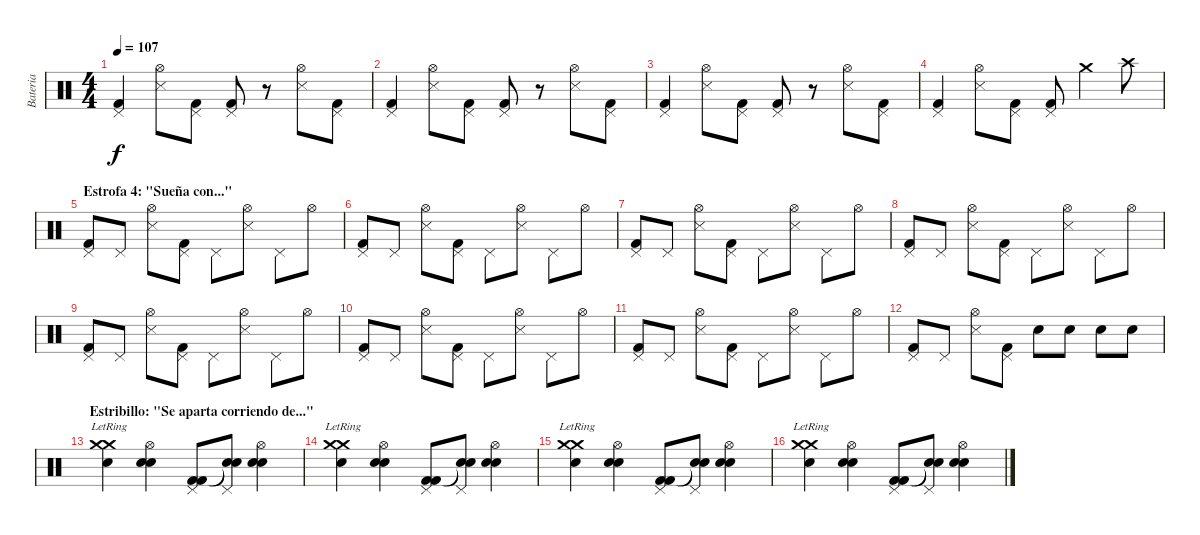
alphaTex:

\track ("Bateria" "Bateria") {instrument percussion}
\staff {score}
\articulation defaults
\ts (4 4)
\tempo 107
\clef neutral
\ks c
("Pedal Hi-Hat (hit)" "Kick (hit) 2").4{dy f} ("Hi-Hat (open)" "Snare (side stick) 3").8 ("Pedal Hi-Hat (hit)" "Kick (hit) 2").8 ("Pedal Hi-Hat (hit)" "Kick (hit) 2").8 r.8 ("Hi-Hat (open)" "Snare (side stick) 3").8 ("Pedal Hi-Hat (hit)" "Kick (hit) 2").8 |
("Pedal Hi-Hat (hit)" "Kick (hit) 2").4 ("Hi-Hat (open)" "Snare (side stick) 3").8 ("Pedal Hi-Hat (hit)" "Kick (hit) 2").8 ("Pedal Hi-Hat (hit)" "Kick (hit) 2").8 r.8 ("Hi-Hat (open)" "Snare (side stick) 3").8 ("Pedal Hi-Hat (hit)" "Kick (hit) 2").8 |
("Pedal Hi-Hat (hit)" "Kick (hit) 2").4 ("Hi-Hat (open)" "Snare (side stick) 3").8 ("Pedal Hi-Hat (hit)" "Kick (hit) 2").8 ("Pedal Hi-Hat (hit)" "Kick (hit) 2").8 r.8 ("Hi-Hat (open)" "Snare (side stick) 3").8 ("Pedal Hi-Hat (hit)" "Kick (hit) 2").8 |
("Pedal Hi-Hat (hit)" "Kick (hit) 2").4 ("Hi-Hat (open)" "Snare (side stick) 3").8 ("Pedal Hi-Hat (hit)" "Kick (hit) 2").8 ("Pedal Hi-Hat (hit)" "Kick (hit) 2").8 "Crash medium (hit)".4 "Crash high (hit)".8 |
\section ("" "Estrofa 4: \"Sueña con...\"")
("Kick (hit) 2" "Pedal Hi-Hat (hit)").8 "Pedal Hi-Hat (hit)".8 ("Hi-Hat (open)" "Snare (side stick) 3").8 ("Kick (hit) 2" "Pedal Hi-Hat (hit)").8 "Pedal Hi-Hat (hit)".8 ("Snare (side stick) 3" "Hi-Hat (open)").8 "Pedal Hi-Hat (hit)".8 "Hi-Hat (open)".8 |
("Kick (hit) 2" "Pedal Hi-Hat (hit)").8 "Pedal Hi-Hat (hit)".8 ("Hi-Hat (open)" "Snare (side stick) 3").8 ("Kick (hit) 2" "Pedal Hi-Hat (hit)").8 "Pedal Hi-Hat (hit)".8 ("Snare (side stick) 3" "Hi-Hat (open)").8 "Pedal Hi-Hat (hit)".8 "Hi-Hat (open)".8 |
("Kick (hit) 2" "Pedal Hi-Hat (hit)").8 "Pedal Hi-Hat (hit)".8 ("Hi-Hat (open)" "Snare (side stick) 3").8 ("Kick (hit) 2" "Pedal Hi-Hat (hit)").8 "Pedal Hi-Hat (hit)".8 ("Snare (side stick) 3" "Hi-Hat (open)").8 "Pedal Hi-Hat (hit)".8 "Hi-Hat (open)".8 |
("Kick (hit) 2" "Pedal Hi-Hat (hit)").8 "Pedal Hi-Hat (hit)".8 ("Hi-Hat (open)" "Snare (side stick) 3").8 ("Kick (hit) 2" "Pedal Hi-Hat (hit)").8 "Pedal Hi-Hat (hit)".8 ("Snare (side stick) 3" "Hi-Hat (open)").8 "Pedal Hi-Hat (hit)".8 "Hi-Hat (open)".8 |
("Kick (hit) 2" "Pedal Hi-Hat (hit)").8 "Pedal Hi-Hat (hit)".8 ("Hi-Hat (open)" "Snare (side stick) 3").8 ("Kick (hit) 2" "Pedal Hi-Hat (hit)").8 "Pedal Hi-Hat (hit)".8 ("Snare (side stick) 3" "Hi-Hat (open)").8 "Pedal Hi-Hat (hit)".8 "Hi-Hat (open)".8 |
("Kick (hit) 2" "Pedal Hi-Hat (hit)").8 "Pedal Hi-Hat (hit)".8 ("Hi-Hat (open)" "Snare (side stick) 3").8 ("Kick (hit) 2" "Pedal Hi-Hat (hit)").8 "Pedal Hi-Hat (hit)".8 ("Snare (side stick) 3" "Hi-Hat (open)").8 "Pedal Hi-Hat (hit)".8 "Hi-Hat (open)".8 |
("Kick (hit) 2" "Pedal Hi-Hat (hit)").8 "Pedal Hi-Hat (hit)".8 ("Hi-Hat (open)" "Snare (side stick) 3").8 ("Kick (hit) 2" "Pedal Hi-Hat (hit)").8 "Pedal Hi-Hat (hit)".8 ("Snare (side stick) 3" "Hi-Hat (open)").8 "Pedal Hi-Hat (hit)".8 "Hi-Hat (open)".8 |
("Kick (hit) 2" "Pedal Hi-Hat (hit)").8 "Pedal Hi-Hat (hit)".8 ("Snare (side stick) 3" "Hi-Hat (open)").8 ("Kick (hit) 2" "Pedal Hi-Hat (hit)").8 "Snare (hit) 2".8 "Snare (hit) 2".8{volume 12} "Snare (hit) 2".8{volume 14} "Snare (hit) 2".8{volume 16} |
\section ("" "Estribillo: \"Se aparta corriendo de...\"")
("Crash medium (hit)"{lr} "Crash medium (hit)"{lr} "Snare (hit) 2").4 ("Hi-Hat (open)" "Snare (hit) 2" "Snare (hit) 2").4 ("Pedal Hi-Hat (hit)" "Kick (hit) 2" "Kick (hit) 2").8 ("Pedal Hi-Hat (hit)" "Snare (hit)"{t} "Snare (hit)"{t}).8 ("Hi-Hat (open)" "Snare (hit) 2" "Snare (hit) 2").4 |
("Crash medium (hit)"{lr} "Crash medium (hit)"{lr} "Snare (hit) 2").4 ("Hi-Hat (open)" "Snare (hit) 2" "Snare (hit) 2").4 ("Pedal Hi-Hat (hit)" "Kick (hit) 2" "Kick (hit) 2").8 ("Pedal Hi-Hat (hit)" "Snare (hit)"{t} "Snare (hit)"{t}).8 ("Hi-Hat (open)" "Snare (hit) 2" "Snare (hit) 2").4 |
("Crash medium (hit)"{lr} "Crash medium (hit)"{lr} "Snare (hit) 2").4 ("Hi-Hat (open)" "Snare (hit) 2" "Snare (hit) 2").4 ("Pedal Hi-Hat (hit)" "Kick (hit) 2" "Kick (hit) 2").8 ("Pedal Hi-Hat (hit)" "Snare (hit)"{t} "Snare (hit)"{t}).8 ("Hi-Hat (open)" "Snare (hit) 2" "Snare (hit) 2").4 |
("Crash medium (hit)"{lr} "Crash medium (hit)"{lr} "Snare (hit) 2").4 ("Hi-Hat (open)" "Snare (hit) 2" "Snare (hit) 2").4 ("Pedal Hi-Hat (hit)" "Kick (hit) 2" "Kick (hit) 2").8 ("Pedal Hi-Hat (hit)" "Snare (hit)"{t} "Snare (hit)"{t}).8 ("Hi-Hat (open)" "Snare (hit) 2" "Snare (hit) 2").4
